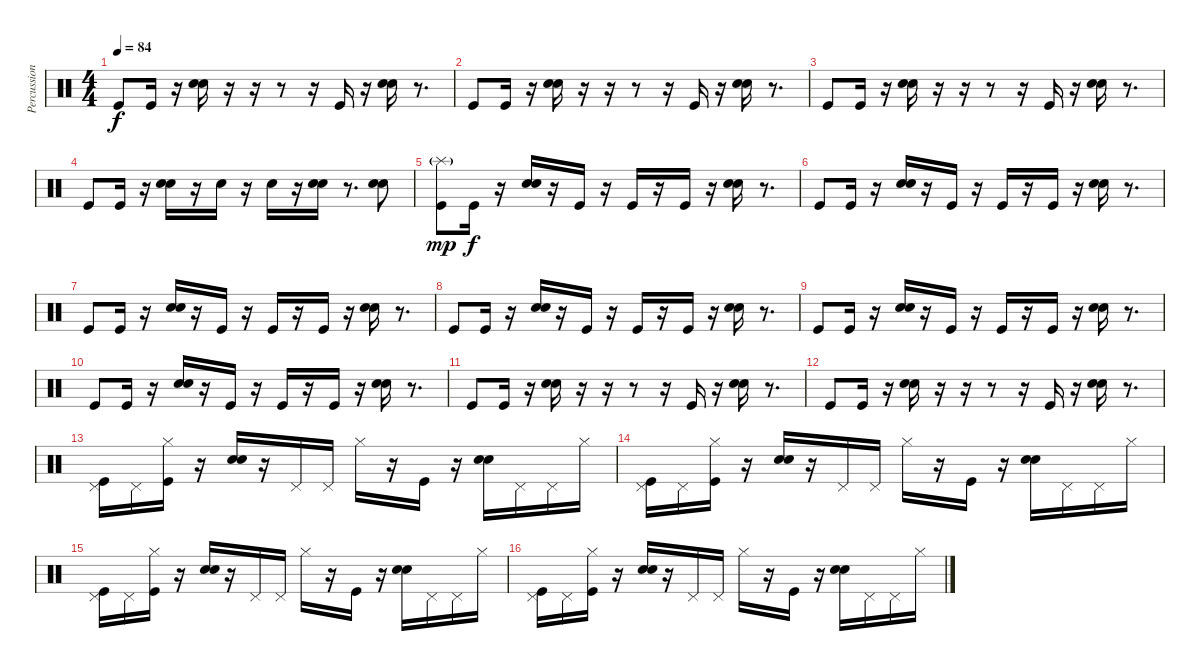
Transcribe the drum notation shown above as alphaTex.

\track ("Percussions" "Percussion") {instrument percussion}
\staff {score}
\articulation defaults
\ts (4 4)
\tempo 84
\clef neutral
\ks c "Kick (hit)".8{dy f} "Kick (hit)".16
r.16 ("Electric Snare (hit)" "Electric Snare (hit)").16{bd 240} r.16 r.16 r.8 r.16 "Kick (hit)".16 r.16 ("Electric Snare (hit)" "Electric Snare (hit)").16{bd 240} r.8{d} |
"Kick (hit)".8 "Kick (hit)".16 r.16 ("Electric Snare (hit)" "Electric Snare (hit)").16{bd 240} r.16 r.16 r.8 r.16 "Kick (hit)".16 r.16 ("Electric Snare (hit)" "Electric Snare (hit)").16{bd 240} r.8{d} |
"Kick (hit)".8 "Kick (hit)".16 r.16 ("Electric Snare (hit)" "Electric Snare (hit)").16{bd 240} r.16 r.16 r.8 r.16 "Kick (hit)".16 r.16 ("Electric Snare (hit)" "Electric Snare (hit)").16{bd 240} r.8{d} |
"Kick (hit)".8 "Kick (hit)".16 r.16 ("Electric Snare (hit)" "Electric Snare (hit)").16{bd 240} r.16 "Electric Snare (hit)".16 r.16 "Electric Snare (hit)".16 r.16 ("Electric Snare (hit)" "Electric Snare (hit)").16{bd 240} r.8{d} ("Snare (hit) 2" "Electric Snare (hit)").8 |
("Splash (hit)"{g} "Kick (hit)").8{dy mp} "Kick (hit)".16{dy f} r.16 ("Electric Snare (hit)" "Electric Snare (hit)").16{bd 240} r.16 "Kick (hit)".16 r.16 "Kick (hit)".16 r.16 "Kick (hit)".16 r.16 ("Electric Snare (hit)" "Electric Snare (hit)").16{bd 240} r.8{d} |
"Kick (hit)".8 "Kick (hit)".16 r.16 ("Electric Snare (hit)" "Electric Snare (hit)").16{bd 240} r.16 "Kick (hit)".16 r.16 "Kick (hit)".16 r.16 "Kick (hit)".16 r.16 ("Electric Snare (hit)" "Electric Snare (hit)").16{bd 240} r.8{d} |
"Kick (hit)".8 "Kick (hit)".16 r.16 ("Electric Snare (hit)" "Electric Snare (hit)").16{bd 240} r.16 "Kick (hit)".16 r.16 "Kick (hit)".16 r.16 "Kick (hit)".16 r.16 ("Electric Snare (hit)" "Electric Snare (hit)").16{bd 240} r.8{d} |
"Kick (hit)".8 "Kick (hit)".16 r.16 ("Electric Snare (hit)" "Electric Snare (hit)").16{bd 240} r.16 "Kick (hit)".16 r.16 "Kick (hit)".16 r.16 "Kick (hit)".16 r.16 ("Electric Snare (hit)" "Electric Snare (hit)").16{bd 240} r.8{d} |
"Kick (hit)".8 "Kick (hit)".16 r.16 ("Electric Snare (hit)" "Electric Snare (hit)").16{bd 240} r.16 "Kick (hit)".16 r.16 "Kick (hit)".16 r.16 "Kick (hit)".16 r.16 ("Electric Snare (hit)" "Electric Snare (hit)").16{bd 240} r.8{d} |
"Kick (hit)".8 "Kick (hit)".16 r.16 ("Electric Snare (hit)" "Electric Snare (hit)").16{bd 240} r.16 "Kick (hit)".16 r.16 "Kick (hit)".16 r.16 "Kick (hit)".16 r.16 ("Electric Snare (hit)" "Electric Snare (hit)").16{bd 240} r.8{d} |
"Kick (hit)".8 "Kick (hit)".16 r.16 ("Electric Snare (hit)" "Electric Snare (hit)").16{bd 240} r.16 r.16 r.8 r.16 "Kick (hit)".16 r.16 ("Electric Snare (hit)" "Electric Snare (hit)").16{bd 240} r.8{d} |
"Kick (hit)".8 "Kick (hit)".16 r.16 ("Electric Snare (hit)" "Electric Snare (hit)").16{bd 240} r.16 r.16 r.8 r.16 "Kick (hit)".16 r.16 ("Electric Snare (hit)" "Electric Snare (hit)").16{bd 240} r.8{d} |
("Pedal Hi-Hat (hit)" "Kick (hit)").16 "Pedal Hi-Hat (hit)".16 ("Hi-Hat (closed)" "Kick (hit)").16 r.16 ("Electric Snare (hit)" "Electric Snare (hit)").16{bd 240} r.16 "Pedal Hi-Hat (hit)".16 "Pedal Hi-Hat (hit)".16 "Hi-Hat (closed)".16 r.16 "Kick (hit)".16 r.16 ("Electric Snare (hit)" "Electric Snare (hit)").16{bd 240} "Pedal Hi-Hat (hit)".16 "Pedal Hi-Hat (hit)".16 "Hi-Hat (closed)".16 |
("Pedal Hi-Hat (hit)" "Kick (hit)").16 "Pedal Hi-Hat (hit)".16 ("Hi-Hat (closed)" "Kick (hit)").16 r.16 ("Electric Snare (hit)" "Electric Snare (hit)").16{bd 240} r.16 "Pedal Hi-Hat (hit)".16 "Pedal Hi-Hat (hit)".16 "Hi-Hat (closed)".16 r.16 "Kick (hit)".16 r.16 ("Electric Snare (hit)" "Electric Snare (hit)").16{bd 240} "Pedal Hi-Hat (hit)".16 "Pedal Hi-Hat (hit)".16 "Hi-Hat (closed)".16 |
("Pedal Hi-Hat (hit)" "Kick (hit)").16 "Pedal Hi-Hat (hit)".16 ("Hi-Hat (closed)" "Kick (hit)").16 r.16 ("Electric Snare (hit)" "Electric Snare (hit)").16{bd 240} r.16 "Pedal Hi-Hat (hit)".16 "Pedal Hi-Hat (hit)".16 "Hi-Hat (closed)".16 r.16 "Kick (hit)".16 r.16 ("Electric Snare (hit)" "Electric Snare (hit)").16{bd 240} "Pedal Hi-Hat (hit)".16 "Pedal Hi-Hat (hit)".16 "Hi-Hat (closed)".16 |
("Pedal Hi-Hat (hit)" "Kick (hit)").16 "Pedal Hi-Hat (hit)".16 ("Hi-Hat (closed)" "Kick (hit)").16 r.16 ("Electric Snare (hit)" "Electric Snare (hit)").16{bd 240} r.16 "Pedal Hi-Hat (hit)".16 "Pedal Hi-Hat (hit)".16 "Hi-Hat (closed)".16 r.16 "Kick (hit)".16 r.16 ("Electric Snare (hit)" "Electric Snare (hit)").16{bd 240} "Pedal Hi-Hat (hit)".16 "Pedal Hi-Hat (hit)".16 "Hi-Hat (closed)".16
